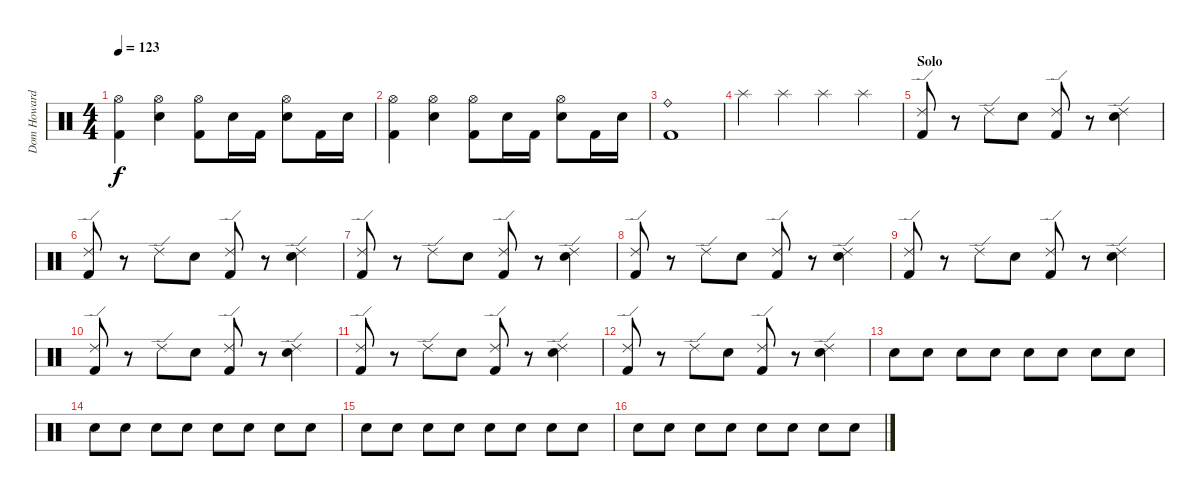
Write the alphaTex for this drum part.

\track ("Dom Howard" "Dom Howard") {instrument percussion}
\staff {score}
\articulation defaults
\ts (4 4)
\tempo 123
\clef neutral
\ks c
("Hi-Hat (open)" "Kick (hit) 2").4{dy f} ("Hi-Hat (open)" "Snare (hit) 2").4 ("Hi-Hat (open)" "Kick (hit) 2").8 "Snare (hit) 2".16 "Kick (hit) 2".16 ("Hi-Hat (open)" "Snare (hit) 2").8 "Kick (hit) 2".16 "Snare (hit) 2".16 |
("Hi-Hat (open)" "Kick (hit) 2").4 ("Hi-Hat (open)" "Snare (hit) 2").4 ("Hi-Hat (open)" "Kick (hit) 2").8 "Snare (hit) 2".16 "Kick (hit) 2".16 ("Hi-Hat (open)" "Snare (hit) 2").8 "Kick (hit) 2".16 "Snare (hit) 2".16 |
("Ride (bell)" "Kick (hit) 2").1 |
"Splash (hit)".4 "Splash (hit)".4 "Splash (hit)".4 "Splash (hit)".4 |
\section ("" "Solo")
("Ride (edge) 2" "Kick (hit) 2").8 r.8 "Ride (edge) 2".8 "Snare (hit) 2".8 ("Ride (edge) 2" "Kick (hit) 2").8 r.8 ("Ride (edge) 2" "Snare (hit) 2").4 |
("Ride (edge) 2" "Kick (hit) 2").8 r.8 "Ride (edge) 2".8 "Snare (hit) 2".8 ("Ride (edge) 2" "Kick (hit) 2").8 r.8 ("Ride (edge) 2" "Snare (hit) 2").4 |
("Ride (edge) 2" "Kick (hit) 2").8 r.8 "Ride (edge) 2".8 "Snare (hit) 2".8 ("Ride (edge) 2" "Kick (hit) 2").8 r.8 ("Ride (edge) 2" "Snare (hit) 2").4 |
("Ride (edge) 2" "Kick (hit) 2").8 r.8 "Ride (edge) 2".8 "Snare (hit) 2".8 ("Ride (edge) 2" "Kick (hit) 2").8 r.8 ("Ride (edge) 2" "Snare (hit) 2").4 |
("Ride (edge) 2" "Kick (hit) 2").8 r.8 "Ride (edge) 2".8 "Snare (hit) 2".8 ("Ride (edge) 2" "Kick (hit) 2").8 r.8 ("Ride (edge) 2" "Snare (hit) 2").4 |
("Ride (edge) 2" "Kick (hit) 2").8 r.8 "Ride (edge) 2".8 "Snare (hit) 2".8 ("Ride (edge) 2" "Kick (hit) 2").8 r.8 ("Ride (edge) 2" "Snare (hit) 2").4 |
("Ride (edge) 2" "Kick (hit) 2").8 r.8 "Ride (edge) 2".8 "Snare (hit) 2".8 ("Ride (edge) 2" "Kick (hit) 2").8 r.8 ("Ride (edge) 2" "Snare (hit) 2").4 |
("Ride (edge) 2" "Kick (hit) 2").8 r.8 "Ride (edge) 2".8 "Snare (hit) 2".8 ("Ride (edge) 2" "Kick (hit) 2").8 r.8 ("Ride (edge) 2" "Snare (hit) 2").4 |
"Snare (hit) 2".8{volume 3} "Snare (hit) 2".8{volume 4} "Snare (hit) 2".8{volume 4} "Snare (hit) 2".8{volume 4} "Snare (hit) 2".8{volume 5} "Snare (hit) 2".8{volume 5} "Snare (hit) 2".8{volume 5} "Snare (hit) 2".8{volume 5} |
"Snare (hit) 2".8{volume 6} "Snare (hit) 2".8{volume 7} "Snare (hit) 2".8{volume 7} "Snare (hit) 2".8{volume 8} "Snare (hit) 2".8{volume 8} "Snare (hit) 2".8{volume 8} "Snare (hit) 2".8{volume 9} "Snare (hit) 2".8{volume 9} |
"Snare (hit) 2".8{volume 10} "Snare (hit) 2".8{volume 10} "Snare (hit) 2".8{volume 10} "Snare (hit) 2".8{volume 11} "Snare (hit) 2".8{volume 11} "Snare (hit) 2".8{volume 12} "Snare (hit) 2".8{volume 12} "Snare (hit) 2".8{volume 12} |
"Snare (hit) 2".8{volume 13} "Snare (hit) 2".8{volume 13} "Snare (hit) 2".8{volume 14} "Snare (hit) 2".8{volume 14} "Snare (hit) 2".8{volume 14} "Snare (hit) 2".8{volume 15} "Snare (hit) 2".8{volume 15} "Snare (hit) 2".8
